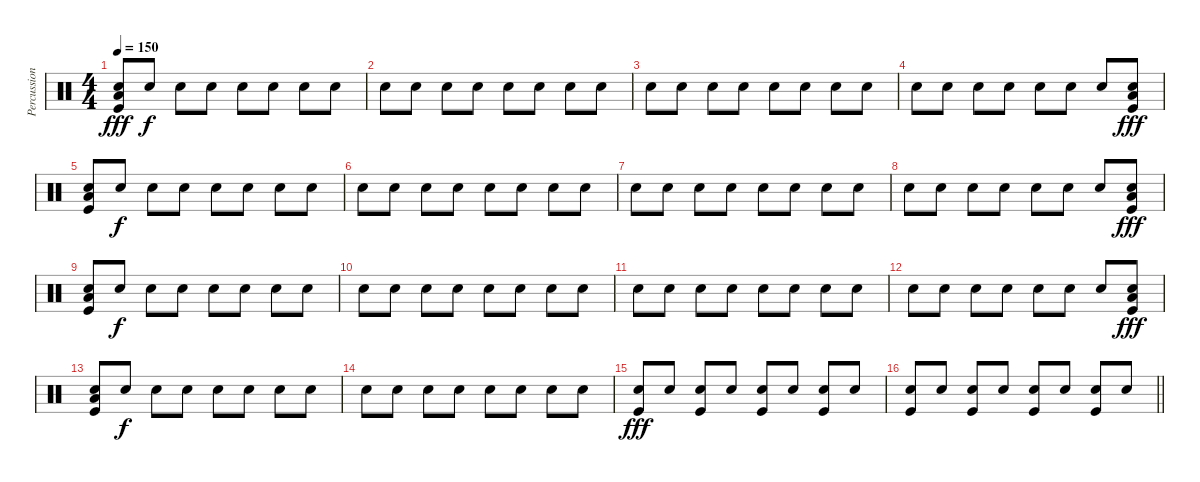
\track ("Percussion" "Percussion") {instrument percussion}
\staff {score}
\articulation defaults
\ts (4 4)
\tempo 150
\clef neutral
\ks c
("Low Floor Tom (hit)" "Snare (hit) 2" "Kick (hit)").8{dy fff} "Snare (hit) 2".8{dy f} "Snare (hit) 2".8 "Snare (hit) 2".8 "Snare (hit) 2".8 "Snare (hit) 2".8 "Snare (hit) 2".8 "Snare (hit) 2".8 |
"Snare (hit) 2".8 "Snare (hit) 2".8 "Snare (hit) 2".8 "Snare (hit) 2".8 "Snare (hit) 2".8 "Snare (hit) 2".8 "Snare (hit) 2".8 "Snare (hit) 2".8 |
"Snare (hit) 2".8 "Snare (hit) 2".8 "Snare (hit) 2".8 "Snare (hit) 2".8 "Snare (hit) 2".8 "Snare (hit) 2".8 "Snare (hit) 2".8 "Snare (hit) 2".8 |
"Snare (hit) 2".8 "Snare (hit) 2".8 "Snare (hit) 2".8 "Snare (hit) 2".8 "Snare (hit) 2".8 "Snare (hit) 2".8 "Snare (hit) 2".8 ("Low Floor Tom (hit)" "Snare (hit) 2" "Kick (hit)").8{dy fff} |
("Low Floor Tom (hit)" "Snare (hit) 2" "Kick (hit)").8 "Snare (hit) 2".8{dy f} "Snare (hit) 2".8 "Snare (hit) 2".8 "Snare (hit) 2".8 "Snare (hit) 2".8 "Snare (hit) 2".8 "Snare (hit) 2".8 |
"Snare (hit) 2".8 "Snare (hit) 2".8 "Snare (hit) 2".8 "Snare (hit) 2".8 "Snare (hit) 2".8 "Snare (hit) 2".8 "Snare (hit) 2".8 "Snare (hit) 2".8 |
"Snare (hit) 2".8 "Snare (hit) 2".8 "Snare (hit) 2".8 "Snare (hit) 2".8 "Snare (hit) 2".8 "Snare (hit) 2".8 "Snare (hit) 2".8 "Snare (hit) 2".8 |
"Snare (hit) 2".8 "Snare (hit) 2".8 "Snare (hit) 2".8 "Snare (hit) 2".8 "Snare (hit) 2".8 "Snare (hit) 2".8 "Snare (hit) 2".8 ("Low Floor Tom (hit)" "Snare (hit) 2" "Kick (hit)").8{dy fff} |
("Low Floor Tom (hit)" "Snare (hit) 2" "Kick (hit)").8 "Snare (hit) 2".8{dy f} "Snare (hit) 2".8 "Snare (hit) 2".8 "Snare (hit) 2".8 "Snare (hit) 2".8 "Snare (hit) 2".8 "Snare (hit) 2".8 |
"Snare (hit) 2".8 "Snare (hit) 2".8 "Snare (hit) 2".8 "Snare (hit) 2".8 "Snare (hit) 2".8 "Snare (hit) 2".8 "Snare (hit) 2".8 "Snare (hit) 2".8 |
"Snare (hit) 2".8 "Snare (hit) 2".8 "Snare (hit) 2".8 "Snare (hit) 2".8 "Snare (hit) 2".8 "Snare (hit) 2".8 "Snare (hit) 2".8 "Snare (hit) 2".8 |
"Snare (hit) 2".8 "Snare (hit) 2".8 "Snare (hit) 2".8 "Snare (hit) 2".8 "Snare (hit) 2".8 "Snare (hit) 2".8 "Snare (hit) 2".8 ("Low Floor Tom (hit)" "Snare (hit) 2" "Kick (hit)").8{dy fff} |
("Low Floor Tom (hit)" "Snare (hit) 2" "Kick (hit)").8 "Snare (hit) 2".8{dy f} "Snare (hit) 2".8 "Snare (hit) 2".8 "Snare (hit) 2".8 "Snare (hit) 2".8 "Snare (hit) 2".8 "Snare (hit) 2".8 |
"Snare (hit) 2".8 "Snare (hit) 2".8 "Snare (hit) 2".8 "Snare (hit) 2".8 "Snare (hit) 2".8 "Snare (hit) 2".8 "Snare (hit) 2".8 "Snare (hit) 2".8 |
("Snare (hit) 2" "Kick (hit)").8{dy fff} "Snare (hit) 2".8 ("Snare (hit) 2" "Kick (hit)").8 "Snare (hit) 2".8 ("Snare (hit) 2" "Kick (hit)").8 "Snare (hit) 2".8 ("Snare (hit) 2" "Kick (hit)").8 "Snare (hit) 2".8 |
\barLineRight lightlight
("Snare (hit) 2" "Kick (hit)").8 "Snare (hit) 2".8 ("Snare (hit) 2" "Kick (hit)").8 "Snare (hit) 2".8 ("Snare (hit) 2" "Kick (hit)").8 "Snare (hit) 2".8 ("Snare (hit) 2" "Kick (hit)").8 "Snare (hit) 2".8
